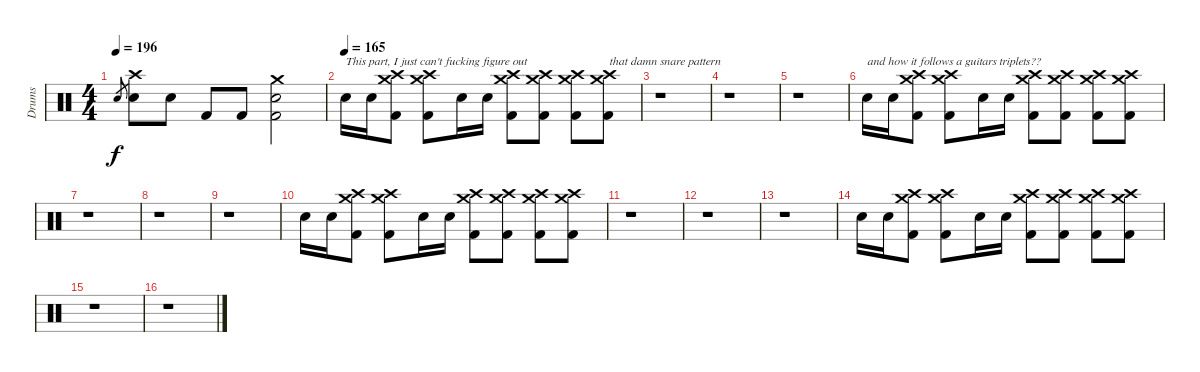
\track ("Drums" "Drums") {instrument percussion}
\staff {score}
\articulation defaults
\ts (4 4)
\tempo 196
\clef neutral
\ks c "Electric Snare (hit)".8{gr dy f}
("Crash high (hit)" "Electric Snare (hit)").8 "Electric Snare (hit)".8 "Kick (hit) 2".8 "Kick (hit) 2".8 ("Crash medium (hit)" "Electric Snare (hit)" "Kick (hit) 2").2 |
\tempo (165)
"Electric Snare (hit)".16{txt "This part, I just can't fucking figure out"} "Electric Snare (hit)".16 ("Crash medium (hit)" "Crash high (hit)" "Kick (hit) 2").8 ("Crash medium (hit)" "Crash high (hit)" "Kick (hit) 2").8 "Electric Snare (hit)".16 "Electric Snare (hit)".16 ("Crash medium (hit)" "Crash high (hit)" "Kick (hit) 2").8 ("Crash medium (hit)" "Crash high (hit)" "Kick (hit) 2").8 ("Crash medium (hit)" "Crash high (hit)" "Kick (hit) 2").8 ("Crash medium (hit)" "Crash high (hit)" "Kick (hit) 2").8{txt "that damn snare pattern"} |
r.1 |
r.1 |
r.1 |
"Electric Snare (hit)".16{txt "and how it follows a guitars triplets??"} "Electric Snare (hit)".16 ("Crash medium (hit)" "Crash high (hit)" "Kick (hit) 2").8 ("Crash medium (hit)" "Crash high (hit)" "Kick (hit) 2").8 "Electric Snare (hit)".16 "Electric Snare (hit)".16 ("Crash medium (hit)" "Crash high (hit)" "Kick (hit) 2").8 ("Crash medium (hit)" "Crash high (hit)" "Kick (hit) 2").8 ("Crash medium (hit)" "Crash high (hit)" "Kick (hit) 2").8 ("Crash medium (hit)" "Crash high (hit)" "Kick (hit) 2").8 |
r.1 |
r.1 |
r.1 |
"Electric Snare (hit)".16 "Electric Snare (hit)".16 ("Crash medium (hit)" "Crash high (hit)" "Kick (hit) 2").8 ("Crash medium (hit)" "Crash high (hit)" "Kick (hit) 2").8 "Electric Snare (hit)".16 "Electric Snare (hit)".16 ("Crash medium (hit)" "Crash high (hit)" "Kick (hit) 2").8 ("Crash medium (hit)" "Crash high (hit)" "Kick (hit) 2").8 ("Crash medium (hit)" "Crash high (hit)" "Kick (hit) 2").8 ("Crash medium (hit)" "Crash high (hit)" "Kick (hit) 2").8 |
r.1 |
r.1 |
r.1 |
"Electric Snare (hit)".16 "Electric Snare (hit)".16 ("Crash medium (hit)" "Crash high (hit)" "Kick (hit) 2").8 ("Crash medium (hit)" "Crash high (hit)" "Kick (hit) 2").8 "Electric Snare (hit)".16 "Electric Snare (hit)".16 ("Crash medium (hit)" "Crash high (hit)" "Kick (hit) 2").8 ("Crash medium (hit)" "Crash high (hit)" "Kick (hit) 2").8 ("Crash medium (hit)" "Crash high (hit)" "Kick (hit) 2").8 ("Crash medium (hit)" "Crash high (hit)" "Kick (hit) 2").8 |
r.1 |
r.1
